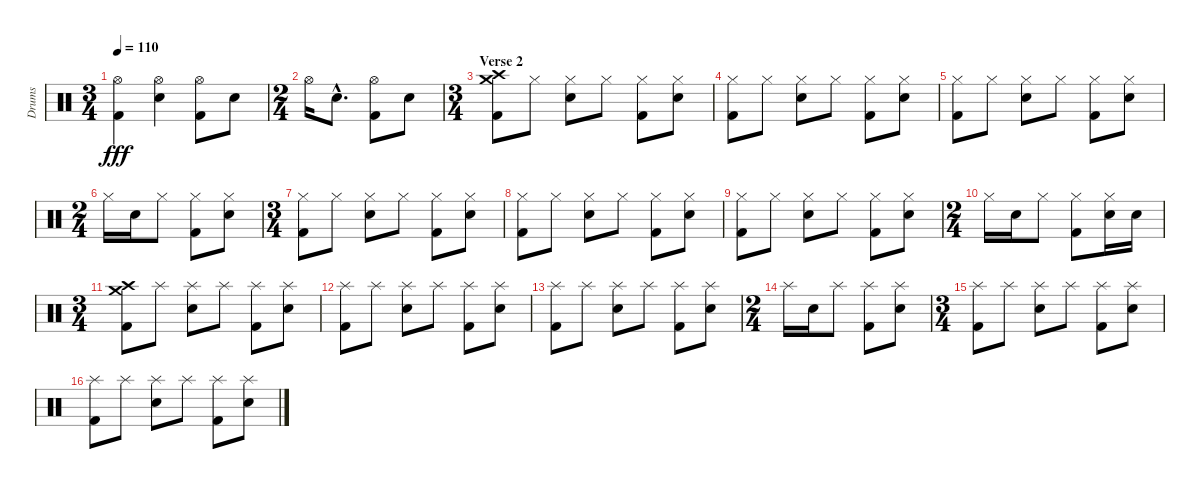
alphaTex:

\track ("Drums" "Drums") {instrument percussion}
\staff {score}
\articulation defaults
\ts (3 4)
\tempo 110
\clef neutral
\ks c
("Hi-Hat (open)" "Kick (hit) 2").4{dy fff} ("Hi-Hat (open)" "Electric Snare (hit)").4 ("Hi-Hat (open)" "Kick (hit) 2").8 "Electric Snare (hit)".8 |
\ts (2 4)
"Hi-Hat (open)".16 "Electric Snare (hit)"{hac}.8{d} ("Hi-Hat (open)" "Kick (hit) 2").8 "Electric Snare (hit)".8 |
\ts (3 4)
\section ("" "Verse 2")
("Crash high (hit)" "Crash medium (hit)" "Kick (hit) 2").8 "Hi-Hat (closed)".8 ("Hi-Hat (closed)" "Electric Snare (hit)").8 "Hi-Hat (closed)".8 ("Hi-Hat (closed)" "Kick (hit) 2").8 ("Hi-Hat (closed)" "Electric Snare (hit)").8 |
("Hi-Hat (closed)" "Kick (hit) 2").8 "Hi-Hat (closed)".8 ("Hi-Hat (closed)" "Electric Snare (hit)").8 "Hi-Hat (closed)".8 ("Hi-Hat (closed)" "Kick (hit) 2").8 ("Hi-Hat (closed)" "Electric Snare (hit)").8 |
("Hi-Hat (closed)" "Kick (hit) 2").8 "Hi-Hat (closed)".8 ("Hi-Hat (closed)" "Electric Snare (hit)").8 "Hi-Hat (closed)".8 ("Hi-Hat (closed)" "Kick (hit) 2").8 ("Hi-Hat (closed)" "Electric Snare (hit)").8 |
\ts (2 4)
"Hi-Hat (closed)".16 "Electric Snare (hit)".16 "Hi-Hat (closed)".8 ("Hi-Hat (closed)" "Kick (hit) 2").8 ("Hi-Hat (closed)" "Electric Snare (hit)").8 |
\ts (3 4)
("Hi-Hat (closed)" "Kick (hit) 2").8 "Hi-Hat (closed)".8 ("Hi-Hat (closed)" "Electric Snare (hit)").8 "Hi-Hat (closed)".8 ("Hi-Hat (closed)" "Kick (hit) 2").8 ("Hi-Hat (closed)" "Electric Snare (hit)").8 |
("Hi-Hat (closed)" "Kick (hit) 2").8 "Hi-Hat (closed)".8 ("Hi-Hat (closed)" "Electric Snare (hit)").8 "Hi-Hat (closed)".8 ("Hi-Hat (closed)" "Kick (hit) 2").8 ("Hi-Hat (closed)" "Electric Snare (hit)").8 |
("Hi-Hat (closed)" "Kick (hit) 2").8 "Hi-Hat (closed)".8 ("Hi-Hat (closed)" "Electric Snare (hit)").8 "Hi-Hat (closed)".8 ("Hi-Hat (closed)" "Kick (hit) 2").8 ("Hi-Hat (closed)" "Electric Snare (hit)").8 |
\ts (2 4)
"Hi-Hat (closed)".16 "Electric Snare (hit)".16 "Hi-Hat (closed)".8 ("Hi-Hat (closed)" "Kick (hit) 2").8 ("Hi-Hat (closed)" "Electric Snare (hit)").16 "Electric Snare (hit)".16 |
\ts (3 4)
("Crash high (hit)" "Crash medium (hit)" "Kick (hit) 2").8 "Splash (hit)".8 ("Splash (hit)" "Electric Snare (hit)").8 "Splash (hit)".8 ("Splash (hit)" "Kick (hit) 2").8 ("Splash (hit)" "Electric Snare (hit)").8 |
("Splash (hit)" "Kick (hit) 2").8 "Splash (hit)".8 ("Splash (hit)" "Electric Snare (hit)").8 "Splash (hit)".8 ("Splash (hit)" "Kick (hit) 2").8 ("Splash (hit)" "Electric Snare (hit)").8 |
("Splash (hit)" "Kick (hit) 2").8 "Splash (hit)".8 ("Splash (hit)" "Electric Snare (hit)").8 "Splash (hit)".8 ("Splash (hit)" "Kick (hit) 2").8 ("Splash (hit)" "Electric Snare (hit)").8 |
\ts (2 4)
"Splash (hit)".16 "Electric Snare (hit)".16 "Splash (hit)".8 ("Splash (hit)" "Kick (hit) 2").8 ("Splash (hit)" "Electric Snare (hit)").8 |
\ts (3 4)
("Splash (hit)" "Kick (hit) 2").8 "Splash (hit)".8 ("Splash (hit)" "Electric Snare (hit)").8 "Splash (hit)".8 ("Splash (hit)" "Kick (hit) 2").8 ("Splash (hit)" "Electric Snare (hit)").8 |
("Splash (hit)" "Kick (hit) 2").8 "Splash (hit)".8 ("Splash (hit)" "Electric Snare (hit)").8 "Splash (hit)".8 ("Splash (hit)" "Kick (hit) 2").8 ("Splash (hit)" "Electric Snare (hit)").8
